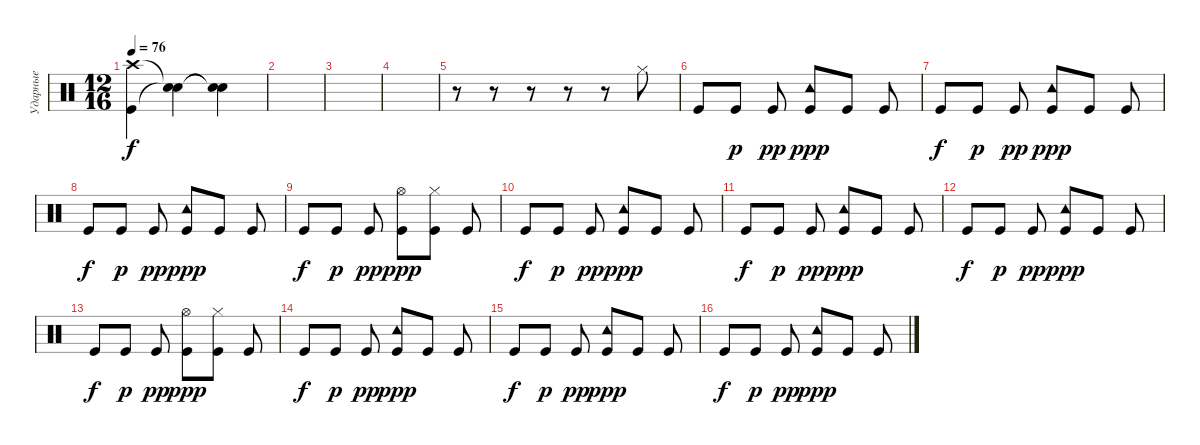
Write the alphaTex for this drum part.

\track ("Ударные" "Ударные") {instrument percussion}
\staff {score}
\articulation defaults
\ts (12 16)
\tempo 76
\clef neutral
\ks c
("Kick (hit)" "Crash high (hit)").4{dy f} ("Snare (hit)"{t} "Snare (hit)"{t}).4 ("Snare (hit)"{t} "Snare (hit)"{t}).4 |
|
|
|
r.8 r.8 r.8 r.8 r.8 "Hi-Hat (closed)".8 |
"Kick (hit)".8 "Kick (hit)".8{dy p} "Kick (hit)".8{dy pp} ("Tambourine (hit)" "Kick (hit)").8{dy ppp} "Kick (hit)".8 "Kick (hit)".8 |
"Kick (hit)".8{dy f} "Kick (hit)".8{dy p} "Kick (hit)".8{dy pp} ("Tambourine (hit)" "Kick (hit)").8{dy ppp} "Kick (hit)".8 "Kick (hit)".8 |
"Kick (hit)".8{dy f} "Kick (hit)".8{dy p} "Kick (hit)".8{dy pp} ("Tambourine (hit)" "Kick (hit)").8{dy ppp} "Kick (hit)".8 "Kick (hit)".8 |
"Kick (hit)".8{dy f} "Kick (hit)".8{dy p} "Kick (hit)".8{dy pp} ("Hi-Hat (open)" "Kick (hit)").8{dy ppp} ("Hi-Hat (closed)" "Kick (hit)").8 "Kick (hit)".8 |
"Kick (hit)".8{dy f} "Kick (hit)".8{dy p} "Kick (hit)".8{dy pp} ("Tambourine (hit)" "Kick (hit)").8{dy ppp} "Kick (hit)".8 "Kick (hit)".8 |
"Kick (hit)".8{dy f} "Kick (hit)".8{dy p} "Kick (hit)".8{dy pp} ("Tambourine (hit)" "Kick (hit)").8{dy ppp} "Kick (hit)".8 "Kick (hit)".8 |
"Kick (hit)".8{dy f} "Kick (hit)".8{dy p} "Kick (hit)".8{dy pp} ("Tambourine (hit)" "Kick (hit)").8{dy ppp} "Kick (hit)".8 "Kick (hit)".8 |
"Kick (hit)".8{dy f} "Kick (hit)".8{dy p} "Kick (hit)".8{dy pp} ("Hi-Hat (open)" "Kick (hit)").8{dy ppp} ("Hi-Hat (closed)" "Kick (hit)").8 "Kick (hit)".8 |
"Kick (hit)".8{dy f} "Kick (hit)".8{dy p} "Kick (hit)".8{dy pp} ("Tambourine (hit)" "Kick (hit)").8{dy ppp} "Kick (hit)".8 "Kick (hit)".8 |
"Kick (hit)".8{dy f} "Kick (hit)".8{dy p} "Kick (hit)".8{dy pp} ("Tambourine (hit)" "Kick (hit)").8{dy ppp} "Kick (hit)".8 "Kick (hit)".8 |
"Kick (hit)".8{dy f} "Kick (hit)".8{dy p} "Kick (hit)".8{dy pp} ("Tambourine (hit)" "Kick (hit)").8{dy ppp} "Kick (hit)".8 "Kick (hit)".8
